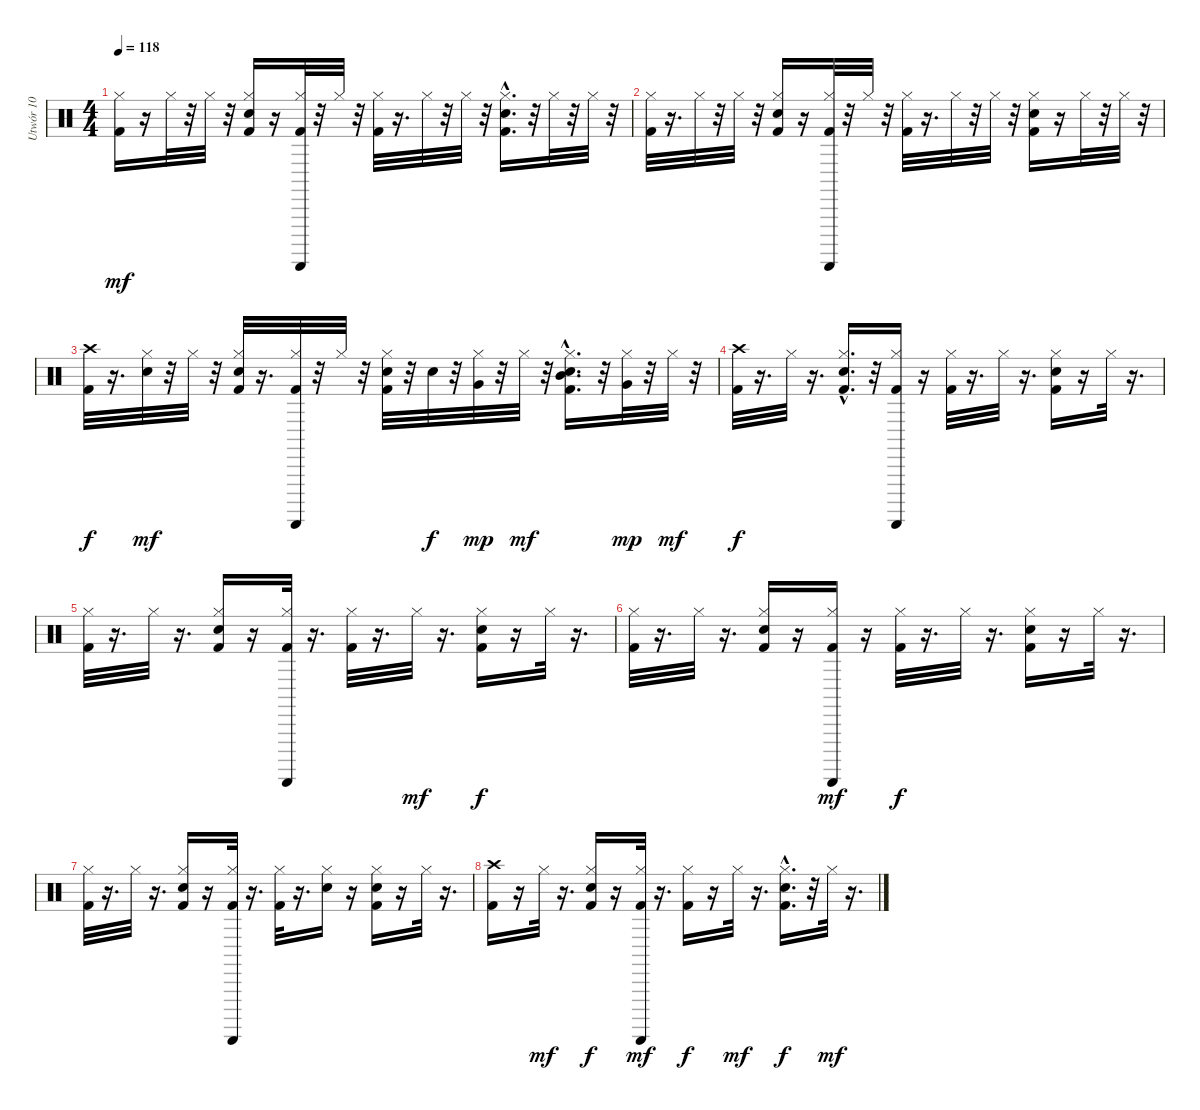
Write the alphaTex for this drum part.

\track ("Utwór 10" "Utwór 10") {instrument percussion}
\staff {score}
\articulation defaults
\ts (4 4)
\tempo 118
\clef neutral
\ks c
("Kick (hit) 2" "Hi-Hat (closed)").16{dy mf} r.16 "Hi-Hat (closed)".32 r.32 "Hi-Hat (closed)".32 r.32 ("Kick (hit) 2" "Snare (hit) 2" "Hi-Hat (closed)").16 r.16 ("Kick (hit) 2" "Hi-Hat (closed)" "Guiro (scrap-return)").32 r.32 "Hi-Hat (closed)".32 r.32 ("Kick (hit) 2" "Hi-Hat (closed)").32 r.16{d} "Hi-Hat (closed)".32 r.32 "Hi-Hat (closed)".32 r.32 ("Kick (hit) 2" "Snare (hit) 2"{hac} "Hi-Hat (closed)").16{d} r.32 "Hi-Hat (closed)".32 r.32 "Hi-Hat (closed)".32 r.32 |
("Kick (hit) 2" "Hi-Hat (closed)").32 r.16{d} "Hi-Hat (closed)".32 r.32 "Hi-Hat (closed)".32 r.32 ("Kick (hit) 2" "Snare (hit) 2" "Hi-Hat (closed)").16 r.16 ("Kick (hit) 2" "Hi-Hat (closed)" "Guiro (scrap-return)").32 r.32 "Hi-Hat (closed)".32 r.32 ("Kick (hit) 2" "Hi-Hat (closed)").32 r.16{d} "Hi-Hat (closed)".32 r.32 "Hi-Hat (closed)".32 r.32 ("Kick (hit) 2" "Snare (hit) 2" "Hi-Hat (closed)").16 r.16 "Hi-Hat (closed)".32 r.32 "Hi-Hat (closed)".32 r.32 |
("Kick (hit) 2" "Crash high (hit)").32{dy f} r.16{d} ("Snare (hit) 2" "Hi-Hat (closed)").32{dy mf} r.32 "Hi-Hat (closed)".32 r.32 ("Kick (hit) 2" "Snare (hit) 2" "Hi-Hat (closed)").32 r.16{d} ("Kick (hit) 2" "Hi-Hat (closed)" "Guiro (scrap-return)").32 r.32 "Hi-Hat (closed)".32 r.32 ("Kick (hit) 2" "Snare (hit) 2" "Hi-Hat (closed)").32 r.32 "Snare (hit) 2".32{dy f} r.32 ("Hi-Hat (closed)" "Very Low Tom (hit)").32{dy mp} r.32 "Hi-Hat (closed)".32{dy mf} r.32 ("Kick (hit) 2" "Snare (hit) 2"{hac} "Hi-Hat (closed)" "Mid Tom (hit)").16{d} r.32 ("Hi-Hat (closed)" "Very Low Tom (hit)").32{dy mp} r.32 "Hi-Hat (closed)".32{dy mf} r.32 |
("Kick (hit) 2" "Crash high (hit)").32{dy f} r.16{d} "Hi-Hat (closed)".32 r.16{d} ("Kick (hit) 2" "Snare (hit) 2"{hac} "Hi-Hat (closed)").16{d} r.32 ("Kick (hit) 2" "Hi-Hat (closed)" "Guiro (scrap-return)").16 r.16 ("Kick (hit) 2" "Hi-Hat (closed)").32 r.16{d} "Hi-Hat (closed)".32 r.16{d} ("Kick (hit) 2" "Snare (hit) 2" "Hi-Hat (closed)").16 r.16 "Hi-Hat (closed)".32 r.16{d} |
("Kick (hit) 2" "Hi-Hat (closed)").32 r.16{d} "Hi-Hat (closed)".32 r.16{d} ("Kick (hit) 2" "Snare (hit) 2" "Hi-Hat (closed)").16 r.16 ("Kick (hit) 2" "Hi-Hat (closed)" "Guiro (scrap-return)").32 r.16{d} ("Kick (hit) 2" "Hi-Hat (closed)").32 r.16{d} "Hi-Hat (closed)".32{dy mf} r.16{d} ("Kick (hit) 2" "Snare (hit) 2" "Hi-Hat (closed)").16{dy f} r.16 "Hi-Hat (closed)".32 r.16{d} |
("Kick (hit) 2" "Hi-Hat (closed)").32 r.16{d} "Hi-Hat (closed)".32 r.16{d} ("Kick (hit) 2" "Snare (hit) 2" "Hi-Hat (closed)").16 r.16 ("Kick (hit) 2" "Hi-Hat (closed)" "Guiro (scrap-return)").16{dy mf} r.16 ("Kick (hit) 2" "Hi-Hat (closed)").32{dy f} r.16{d} "Hi-Hat (closed)".32 r.16{d} ("Kick (hit) 2" "Snare (hit) 2" "Hi-Hat (closed)").16 r.16 "Hi-Hat (closed)".32 r.16{d} |
("Kick (hit) 2" "Hi-Hat (closed)").32 r.16{d} "Hi-Hat (closed)".32 r.16{d} ("Kick (hit) 2" "Snare (hit) 2" "Hi-Hat (closed)").16 r.16 ("Kick (hit) 2" "Hi-Hat (closed)" "Guiro (scrap-return)").32 r.16{d} ("Kick (hit) 2" "Hi-Hat (closed)").32 r.16{d} ("Snare (hit) 2" "Hi-Hat (closed)").16 r.16 ("Kick (hit) 2" "Snare (hit) 2" "Hi-Hat (closed)").16 r.16 "Hi-Hat (closed)".32 r.16{d} |
("Kick (hit) 2" "Crash high (hit)").16 r.16 "Hi-Hat (closed)".32{dy mf} r.16{d} ("Kick (hit) 2" "Snare (hit) 2" "Hi-Hat (closed)").16{dy f} r.16 ("Kick (hit) 2" "Hi-Hat (closed)" "Guiro (scrap-return)").32{dy mf} r.16{d} ("Kick (hit) 2" "Hi-Hat (closed)").16{dy f} r.16 "Hi-Hat (closed)".32{dy mf} r.16{d} ("Kick (hit) 2" "Snare (hit) 2"{hac} "Hi-Hat (closed)").16{d dy f} r.32 "Hi-Hat (closed)".32{dy mf} r.16{d}
